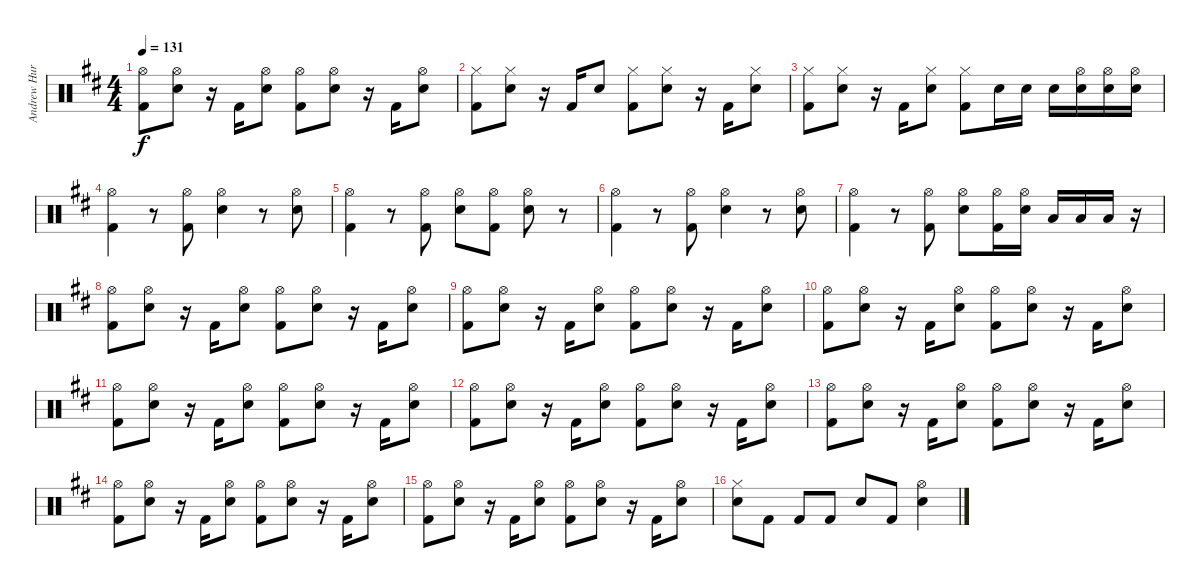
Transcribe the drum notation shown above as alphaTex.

\track ("Andrew Hurley" "Andrew Hur") {instrument percussion}
\staff {score}
\articulation defaults
\ts (4 4)
\tempo 131
\clef neutral
\ks d
("Hi-Hat (open)" "Kick (hit) 2").8{dy f} ("Hi-Hat (open)" "Electric Snare (hit)").8 r.16 "Kick (hit) 2".16 ("Hi-Hat (open)" "Electric Snare (hit)").8 ("Hi-Hat (open)" "Kick (hit) 2").8 ("Hi-Hat (open)" "Electric Snare (hit)").8 r.16 "Kick (hit) 2".16 ("Hi-Hat (open)" "Electric Snare (hit)").8 |
("Hi-Hat (closed)" "Kick (hit) 2").8 ("Hi-Hat (closed)" "Electric Snare (hit)").8 r.16 "Kick (hit) 2".16 "Electric Snare (hit)".8 ("Hi-Hat (closed)" "Kick (hit) 2").8 ("Hi-Hat (closed)" "Electric Snare (hit)").8 r.16 "Kick (hit) 2".16 ("Hi-Hat (closed)" "Electric Snare (hit)").8 |
("Hi-Hat (closed)" "Kick (hit) 2").8 ("Hi-Hat (closed)" "Electric Snare (hit)").8 r.16 "Kick (hit) 2".16 ("Hi-Hat (closed)" "Electric Snare (hit)").8 ("Hi-Hat (closed)" "Kick (hit) 2").8 "Electric Snare (hit)".16 "Electric Snare (hit)".16 "Electric Snare (hit)".16 ("Hi-Hat (open)" "Electric Snare (hit)").16 ("Hi-Hat (open)" "Electric Snare (hit)").16 ("Hi-Hat (open)" "Electric Snare (hit)").16 |
("Hi-Hat (open)" "Kick (hit) 2").4 r.8 ("Hi-Hat (open)" "Kick (hit) 2").8 ("Hi-Hat (open)" "Electric Snare (hit)").4 r.8 ("Hi-Hat (open)" "Electric Snare (hit)").8 |
("Hi-Hat (open)" "Kick (hit) 2").4 r.8 ("Hi-Hat (open)" "Kick (hit) 2").8 ("Hi-Hat (open)" "Electric Snare (hit)").8 ("Hi-Hat (open)" "Kick (hit) 2").8 ("Hi-Hat (open)" "Electric Snare (hit)").8 r.8 |
("Hi-Hat (open)" "Kick (hit) 2").4 r.8 ("Hi-Hat (open)" "Kick (hit) 2").8 ("Hi-Hat (open)" "Electric Snare (hit)").4 r.8 ("Hi-Hat (open)" "Electric Snare (hit)").8 |
("Hi-Hat (open)" "Kick (hit) 2").4 r.8 ("Hi-Hat (open)" "Kick (hit) 2").8 ("Hi-Hat (open)" "Electric Snare (hit)").8 ("Hi-Hat (open)" "Kick (hit) 2").16 ("Hi-Hat (open)" "Electric Snare (hit)").16 "Low Tom (hit)".16 "Low Tom (hit)".16 "Low Floor Tom (hit)".16 r.16 |
("Hi-Hat (open)" "Kick (hit) 2").8 ("Hi-Hat (open)" "Electric Snare (hit)").8 r.16 "Kick (hit) 2".16 ("Hi-Hat (open)" "Electric Snare (hit)").8 ("Hi-Hat (open)" "Kick (hit) 2").8 ("Hi-Hat (open)" "Electric Snare (hit)").8 r.16 "Kick (hit) 2".16 ("Hi-Hat (open)" "Electric Snare (hit)").8 |
("Hi-Hat (open)" "Kick (hit) 2").8 ("Hi-Hat (open)" "Electric Snare (hit)").8 r.16 "Kick (hit) 2".16 ("Hi-Hat (open)" "Electric Snare (hit)").8 ("Hi-Hat (open)" "Kick (hit) 2").8 ("Hi-Hat (open)" "Electric Snare (hit)").8 r.16 "Kick (hit) 2".16 ("Hi-Hat (open)" "Electric Snare (hit)").8 |
("Hi-Hat (open)" "Kick (hit) 2").8 ("Hi-Hat (open)" "Electric Snare (hit)").8 r.16 "Kick (hit) 2".16 ("Hi-Hat (open)" "Electric Snare (hit)").8 ("Hi-Hat (open)" "Kick (hit) 2").8 ("Hi-Hat (open)" "Electric Snare (hit)").8 r.16 "Kick (hit) 2".16 ("Hi-Hat (open)" "Electric Snare (hit)").8 |
("Hi-Hat (open)" "Kick (hit) 2").8 ("Hi-Hat (open)" "Electric Snare (hit)").8 r.16 "Kick (hit) 2".16 ("Hi-Hat (open)" "Electric Snare (hit)").8 ("Hi-Hat (open)" "Kick (hit) 2").8 ("Hi-Hat (open)" "Electric Snare (hit)").8 r.16 "Kick (hit) 2".16 ("Hi-Hat (open)" "Electric Snare (hit)").8 |
("Hi-Hat (open)" "Kick (hit) 2").8 ("Hi-Hat (open)" "Electric Snare (hit)").8 r.16 "Kick (hit) 2".16 ("Hi-Hat (open)" "Electric Snare (hit)").8 ("Hi-Hat (open)" "Kick (hit) 2").8 ("Hi-Hat (open)" "Electric Snare (hit)").8 r.16 "Kick (hit) 2".16 ("Hi-Hat (open)" "Electric Snare (hit)").8 |
("Hi-Hat (open)" "Kick (hit) 2").8 ("Hi-Hat (open)" "Electric Snare (hit)").8 r.16 "Kick (hit) 2".16 ("Hi-Hat (open)" "Electric Snare (hit)").8 ("Hi-Hat (open)" "Kick (hit) 2").8 ("Hi-Hat (open)" "Electric Snare (hit)").8 r.16 "Kick (hit) 2".16 ("Hi-Hat (open)" "Electric Snare (hit)").8 |
("Hi-Hat (open)" "Kick (hit) 2").8 ("Hi-Hat (open)" "Electric Snare (hit)").8 r.16 "Kick (hit) 2".16 ("Hi-Hat (open)" "Electric Snare (hit)").8 ("Hi-Hat (open)" "Kick (hit) 2").8 ("Hi-Hat (open)" "Electric Snare (hit)").8 r.16 "Kick (hit) 2".16 ("Hi-Hat (open)" "Electric Snare (hit)").8 |
("Hi-Hat (open)" "Kick (hit) 2").8 ("Hi-Hat (open)" "Electric Snare (hit)").8 r.16 "Kick (hit) 2".16 ("Hi-Hat (open)" "Electric Snare (hit)").8 ("Hi-Hat (open)" "Kick (hit) 2").8 ("Hi-Hat (open)" "Electric Snare (hit)").8 r.16 "Kick (hit) 2".16 ("Hi-Hat (open)" "Electric Snare (hit)").8 |
("Hi-Hat (closed)" "Electric Snare (hit)").8 "Kick (hit) 2".8 "Kick (hit) 2".8 "Kick (hit) 2".8 "Electric Snare (hit)".8 "Kick (hit) 2".8 ("Hi-Hat (open)" "Electric Snare (hit)").4
